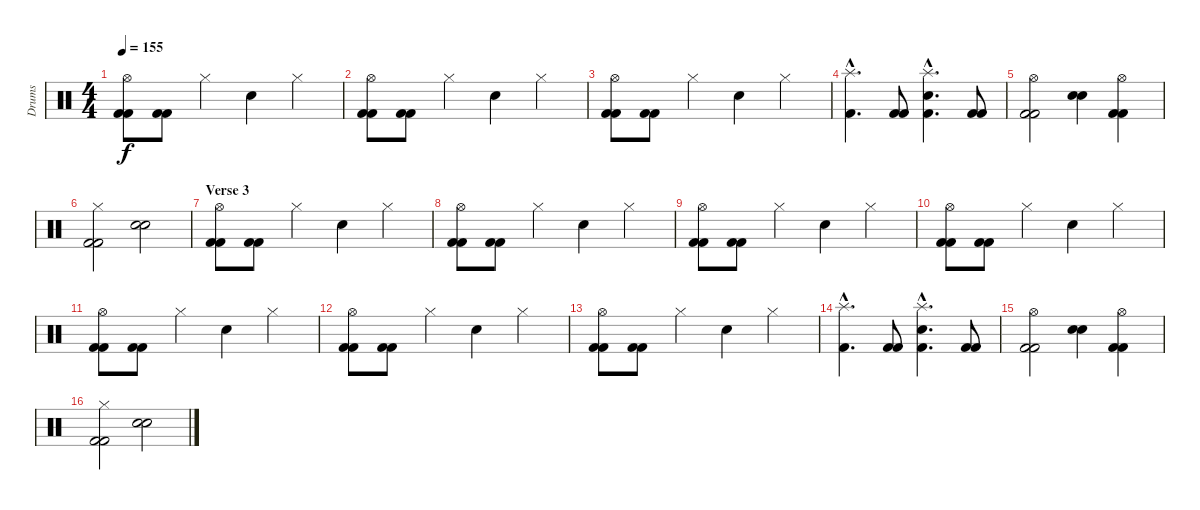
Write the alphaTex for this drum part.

\track ("Drums" "Drums") {instrument percussion}
\staff {score}
\articulation defaults
\ts (4 4)
\tempo 155
\clef neutral
\ks c
("Hi-Hat (open)" "Kick (hit) 2" "Kick (hit) 2").8{dy f} ("Kick (hit) 2" "Kick (hit) 2").8 "Hi-Hat (closed)".4 "Snare (hit) 2".4 "Hi-Hat (closed)".4 |
("Hi-Hat (open)" "Kick (hit) 2" "Kick (hit) 2").8 ("Kick (hit) 2" "Kick (hit) 2").8 "Hi-Hat (closed)".4 "Snare (hit) 2".4 "Hi-Hat (closed)".4 |
("Hi-Hat (open)" "Kick (hit) 2" "Kick (hit) 2").8 ("Kick (hit) 2" "Kick (hit) 2").8 "Hi-Hat (closed)".4 "Snare (hit) 2".4 "Hi-Hat (closed)".4 |
("Splash (hit)"{hac} "Kick (hit) 2"{hac}).4{d} ("Kick (hit) 2" "Kick (hit) 2").8 ("Splash (hit)"{hac} "Snare (hit) 2"{hac} "Kick (hit) 2"{hac}).4{d} ("Kick (hit) 2" "Kick (hit) 2").8 |
("Hi-Hat (open)" "Kick (hit) 2" "Kick (hit) 2").2 ("Snare (hit) 2" "Snare (hit) 2").4 ("Hi-Hat (open)" "Kick (hit) 2" "Kick (hit) 2").4 |
("Hi-Hat (closed)" "Kick (hit) 2" "Kick (hit) 2").2 ("Snare (hit) 2" "Snare (hit) 2").2 |
\section ("" "Verse 3")
("Hi-Hat (open)" "Kick (hit) 2" "Kick (hit) 2").8 ("Kick (hit) 2" "Kick (hit) 2").8 "Hi-Hat (closed)".4 "Snare (hit) 2".4 "Hi-Hat (closed)".4 |
("Hi-Hat (open)" "Kick (hit) 2" "Kick (hit) 2").8 ("Kick (hit) 2" "Kick (hit) 2").8 "Hi-Hat (closed)".4 "Snare (hit) 2".4 "Hi-Hat (closed)".4 |
("Hi-Hat (open)" "Kick (hit) 2" "Kick (hit) 2").8 ("Kick (hit) 2" "Kick (hit) 2").8 "Hi-Hat (closed)".4 "Snare (hit) 2".4 "Hi-Hat (closed)".4 |
("Hi-Hat (open)" "Kick (hit) 2" "Kick (hit) 2").8 ("Kick (hit) 2" "Kick (hit) 2").8 "Hi-Hat (closed)".4 "Snare (hit) 2".4 "Hi-Hat (closed)".4 |
("Hi-Hat (open)" "Kick (hit) 2" "Kick (hit) 2").8 ("Kick (hit) 2" "Kick (hit) 2").8 "Hi-Hat (closed)".4 "Snare (hit) 2".4 "Hi-Hat (closed)".4 |
("Hi-Hat (open)" "Kick (hit) 2" "Kick (hit) 2").8 ("Kick (hit) 2" "Kick (hit) 2").8 "Hi-Hat (closed)".4 "Snare (hit) 2".4 "Hi-Hat (closed)".4 |
("Hi-Hat (open)" "Kick (hit) 2" "Kick (hit) 2").8 ("Kick (hit) 2" "Kick (hit) 2").8 "Hi-Hat (closed)".4 "Snare (hit) 2".4 "Hi-Hat (closed)".4 |
("Splash (hit)"{hac} "Kick (hit) 2"{hac}).4{d} ("Kick (hit) 2" "Kick (hit) 2").8 ("Splash (hit)"{hac} "Snare (hit) 2"{hac} "Kick (hit) 2"{hac}).4{d} ("Kick (hit) 2" "Kick (hit) 2").8 |
("Hi-Hat (open)" "Kick (hit) 2" "Kick (hit) 2").2 ("Snare (hit) 2" "Snare (hit) 2").4 ("Hi-Hat (open)" "Kick (hit) 2" "Kick (hit) 2").4 |
("Hi-Hat (closed)" "Kick (hit) 2" "Kick (hit) 2").2 ("Snare (hit) 2" "Snare (hit) 2").2
